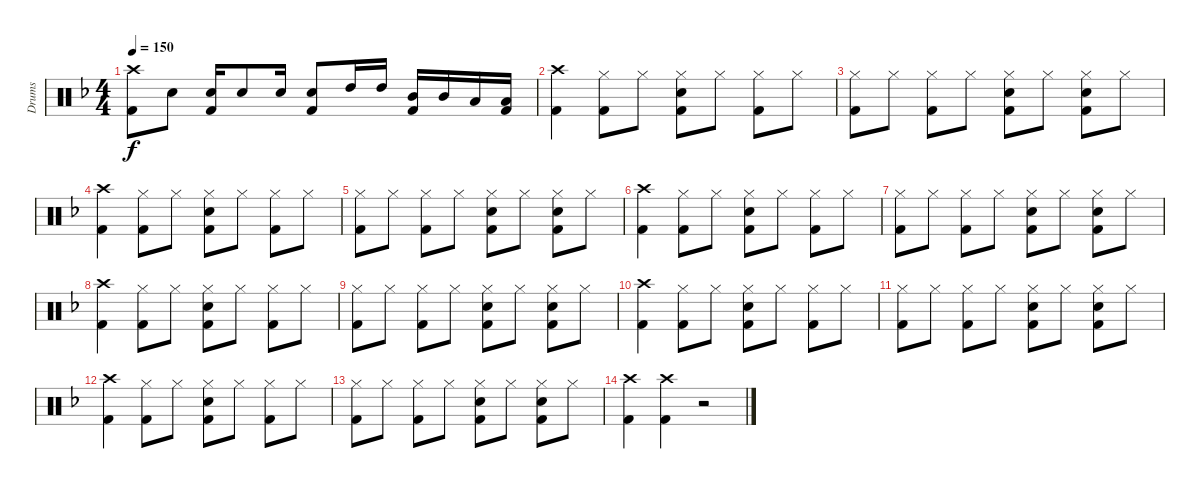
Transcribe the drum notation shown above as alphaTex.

\track ("Drums" "Drums") {instrument percussion}
\staff {score}
\articulation defaults
\ts (4 4)
\tempo 150
\clef neutral
\ks f
("Crash high (hit)" "Kick (hit) 2").8{dy f} "Electric Snare (hit)".8 ("Electric Snare (hit)" "Kick (hit) 2").16 "Electric Snare (hit)".8 "Electric Snare (hit)".16 ("Electric Snare (hit)" "Kick (hit) 2").8 "High Tom (hit)".16 "High Tom (hit)".16 ("Mid Tom (hit)" "Kick (hit) 2").16 "Mid Tom (hit)".16 "Low Tom (hit)".16 ("Low Tom (hit)" "Kick (hit) 2").16 |
("Crash high (hit)" "Kick (hit) 2").4 ("Hi-Hat (closed)" "Kick (hit) 2").8 "Hi-Hat (closed)".8 ("Hi-Hat (closed)" "Electric Snare (hit)" "Kick (hit) 2").8 "Hi-Hat (closed)".8 ("Hi-Hat (closed)" "Kick (hit) 2").8 "Hi-Hat (closed)".8 |
("Hi-Hat (closed)" "Kick (hit) 2").8 "Hi-Hat (closed)".8 ("Hi-Hat (closed)" "Kick (hit) 2").8 "Hi-Hat (closed)".8 ("Hi-Hat (closed)" "Electric Snare (hit)" "Kick (hit) 2").8 "Hi-Hat (closed)".8 ("Hi-Hat (closed)" "Electric Snare (hit)" "Kick (hit) 2").8 "Hi-Hat (closed)".8 |
("Crash high (hit)" "Kick (hit) 2").4 ("Hi-Hat (closed)" "Kick (hit) 2").8 "Hi-Hat (closed)".8 ("Hi-Hat (closed)" "Electric Snare (hit)" "Kick (hit) 2").8 "Hi-Hat (closed)".8 ("Hi-Hat (closed)" "Kick (hit) 2").8 "Hi-Hat (closed)".8 |
("Hi-Hat (closed)" "Kick (hit) 2").8 "Hi-Hat (closed)".8 ("Hi-Hat (closed)" "Kick (hit) 2").8 "Hi-Hat (closed)".8 ("Hi-Hat (closed)" "Electric Snare (hit)" "Kick (hit) 2").8 "Hi-Hat (closed)".8 ("Hi-Hat (closed)" "Electric Snare (hit)" "Kick (hit) 2").8 "Hi-Hat (closed)".8 |
("Crash high (hit)" "Kick (hit) 2").4 ("Hi-Hat (closed)" "Kick (hit) 2").8 "Hi-Hat (closed)".8 ("Hi-Hat (closed)" "Electric Snare (hit)" "Kick (hit) 2").8 "Hi-Hat (closed)".8 ("Hi-Hat (closed)" "Kick (hit) 2").8 "Hi-Hat (closed)".8 |
("Hi-Hat (closed)" "Kick (hit) 2").8 "Hi-Hat (closed)".8 ("Hi-Hat (closed)" "Kick (hit) 2").8 "Hi-Hat (closed)".8 ("Hi-Hat (closed)" "Electric Snare (hit)" "Kick (hit) 2").8 "Hi-Hat (closed)".8 ("Hi-Hat (closed)" "Electric Snare (hit)" "Kick (hit) 2").8 "Hi-Hat (closed)".8 |
("Crash high (hit)" "Kick (hit) 2").4 ("Hi-Hat (closed)" "Kick (hit) 2").8 "Hi-Hat (closed)".8 ("Hi-Hat (closed)" "Electric Snare (hit)" "Kick (hit) 2").8 "Hi-Hat (closed)".8 ("Hi-Hat (closed)" "Kick (hit) 2").8 "Hi-Hat (closed)".8 |
("Hi-Hat (closed)" "Kick (hit) 2").8 "Hi-Hat (closed)".8 ("Hi-Hat (closed)" "Kick (hit) 2").8 "Hi-Hat (closed)".8 ("Hi-Hat (closed)" "Electric Snare (hit)" "Kick (hit) 2").8 "Hi-Hat (closed)".8 ("Hi-Hat (closed)" "Electric Snare (hit)" "Kick (hit) 2").8 "Hi-Hat (closed)".8 |
("Crash high (hit)" "Kick (hit) 2").4 ("Hi-Hat (closed)" "Kick (hit) 2").8 "Hi-Hat (closed)".8 ("Hi-Hat (closed)" "Electric Snare (hit)" "Kick (hit) 2").8 "Hi-Hat (closed)".8 ("Hi-Hat (closed)" "Kick (hit) 2").8 "Hi-Hat (closed)".8 |
("Hi-Hat (closed)" "Kick (hit) 2").8 "Hi-Hat (closed)".8 ("Hi-Hat (closed)" "Kick (hit) 2").8 "Hi-Hat (closed)".8 ("Hi-Hat (closed)" "Electric Snare (hit)" "Kick (hit) 2").8 "Hi-Hat (closed)".8 ("Hi-Hat (closed)" "Electric Snare (hit)" "Kick (hit) 2").8 "Hi-Hat (closed)".8 |
("Crash high (hit)" "Kick (hit) 2").4 ("Hi-Hat (closed)" "Kick (hit) 2").8 "Hi-Hat (closed)".8 ("Hi-Hat (closed)" "Electric Snare (hit)" "Kick (hit) 2").8 "Hi-Hat (closed)".8 ("Hi-Hat (closed)" "Kick (hit) 2").8 "Hi-Hat (closed)".8 |
("Hi-Hat (closed)" "Kick (hit) 2").8 "Hi-Hat (closed)".8 ("Hi-Hat (closed)" "Kick (hit) 2").8 "Hi-Hat (closed)".8 ("Hi-Hat (closed)" "Electric Snare (hit)" "Kick (hit) 2").8 "Hi-Hat (closed)".8 ("Hi-Hat (closed)" "Electric Snare (hit)" "Kick (hit) 2").8 "Hi-Hat (closed)".8 |
("Crash high (hit)" "Kick (hit) 2").4 ("Crash high (hit)" "Kick (hit) 2").4 r.2
